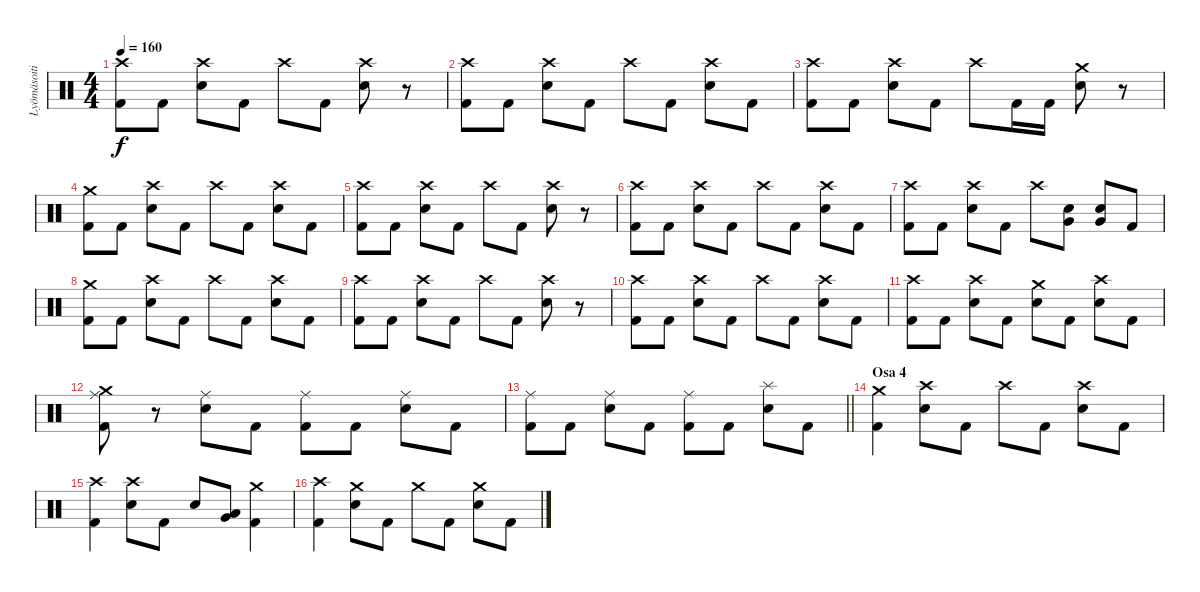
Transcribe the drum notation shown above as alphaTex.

\track ("Lyömäsoitin" "Lyömäsoiti") {instrument percussion}
\staff {score}
\articulation defaults
\ts (4 4)
\tempo 160
\clef neutral
\ks c
("Crash high (hit)" "Kick (hit) 2").8{dy f} "Kick (hit) 2".8 ("Crash high (hit)" "Snare (hit) 2").8 "Kick (hit) 2".8 "Crash high (hit)".8 "Kick (hit) 2".8 ("Crash high (hit)" "Snare (hit) 2").8 r.8 |
("Crash high (hit)" "Kick (hit) 2").8 "Kick (hit) 2".8 ("Crash high (hit)" "Snare (hit) 2").8 "Kick (hit) 2".8 "Crash high (hit)".8 "Kick (hit) 2".8 ("Crash high (hit)" "Snare (hit) 2").8 "Kick (hit) 2".8 |
("Crash high (hit)" "Kick (hit) 2").8 "Kick (hit) 2".8 ("Crash high (hit)" "Snare (hit) 2").8 "Kick (hit) 2".8 "Crash high (hit)".8 "Kick (hit) 2".16 "Kick (hit) 2".16 ("Crash medium (hit)" "Snare (hit) 2").8 r.8 |
("Crash medium (hit)" "Kick (hit) 2").8 "Kick (hit) 2".8 ("Crash high (hit)" "Snare (hit) 2").8 "Kick (hit) 2".8 "Crash high (hit)".8 "Kick (hit) 2".8 ("Crash high (hit)" "Snare (hit) 2").8 "Kick (hit) 2".8 |
("Crash high (hit)" "Kick (hit) 2").8 "Kick (hit) 2".8 ("Crash high (hit)" "Snare (hit) 2").8 "Kick (hit) 2".8 "Crash high (hit)".8 "Kick (hit) 2".8 ("Crash high (hit)" "Snare (hit) 2").8 r.8 |
("Crash high (hit)" "Kick (hit) 2").8 "Kick (hit) 2".8 ("Crash high (hit)" "Snare (hit) 2").8 "Kick (hit) 2".8 "Crash high (hit)".8 "Kick (hit) 2".8 ("Crash high (hit)" "Snare (hit) 2").8 "Kick (hit) 2".8 |
("Crash high (hit)" "Kick (hit) 2").8 "Kick (hit) 2".8 ("Crash high (hit)" "Snare (hit) 2").8 "Kick (hit) 2".8 "Crash high (hit)".8 ("Very Low Tom (hit)" "Snare (hit) 2").8 ("Very Low Tom (hit)" "Snare (hit) 2").8 "Kick (hit) 2".8 |
("Crash medium (hit)" "Kick (hit) 2").8 "Kick (hit) 2".8 ("Crash high (hit)" "Snare (hit) 2").8 "Kick (hit) 2".8 "Crash high (hit)".8 "Kick (hit) 2".8 ("Crash high (hit)" "Snare (hit) 2").8 "Kick (hit) 2".8 |
("Crash high (hit)" "Kick (hit) 2").8 "Kick (hit) 2".8 ("Crash high (hit)" "Snare (hit) 2").8 "Kick (hit) 2".8 "Crash high (hit)".8 "Kick (hit) 2".8 ("Crash high (hit)" "Snare (hit) 2").8 r.8 |
("Crash high (hit)" "Kick (hit) 2").8 "Kick (hit) 2".8 ("Crash high (hit)" "Snare (hit) 2").8 "Kick (hit) 2".8 "Crash high (hit)".8 "Kick (hit) 2".8 ("Crash high (hit)" "Snare (hit) 2").8 "Kick (hit) 2".8 |
("Crash high (hit)" "Kick (hit) 2").8 "Kick (hit) 2".8 ("Crash high (hit)" "Snare (hit) 2").8 "Kick (hit) 2".8 ("Crash medium (hit)" "Snare (hit) 2").8 "Kick (hit) 2".8 ("Crash high (hit)" "Snare (hit) 2").8 "Kick (hit) 2".8 |
("Crash medium (hit)" "Ride (middle)" "Kick (hit) 2").8 r.8 ("Ride (middle)" "Snare (hit) 2").8 "Kick (hit) 2".8 ("Ride (middle)" "Kick (hit) 2").8 "Kick (hit) 2".8 ("Ride (middle)" "Snare (hit) 2").8 "Kick (hit) 2".8 |
\barLineRight lightlight
("Ride (middle)" "Kick (hit) 2").8 "Kick (hit) 2".8 ("Ride (middle)" "Snare (hit) 2").8 "Kick (hit) 2".8 ("Ride (middle)" "Kick (hit) 2").8 "Kick (hit) 2".8 ("Splash (hit)" "Snare (hit) 2").8 "Kick (hit) 2".8 |
\section ("" "Osa 4")
("Crash medium (hit)" "Kick (hit) 2").4 ("Crash high (hit)" "Snare (hit) 2").8 "Kick (hit) 2".8 "Crash high (hit)".8 "Kick (hit) 2".8 ("Crash high (hit)" "Snare (hit) 2").8 "Kick (hit) 2".8 |
("Crash high (hit)" "Kick (hit) 2").4 ("Crash high (hit)" "Snare (hit) 2").8 "Kick (hit) 2".8 "Snare (hit) 2".8 ("Low Tom (hit)" "Very Low Tom (hit)").8 ("Crash medium (hit)" "Kick (hit) 2").4 |
("Crash high (hit)" "Kick (hit) 2").4 ("Crash medium (hit)" "Snare (hit) 2").8 "Kick (hit) 2".8 "Crash medium (hit)".8 "Kick (hit) 2".8 ("Crash medium (hit)" "Snare (hit) 2").8 "Kick (hit) 2".8
